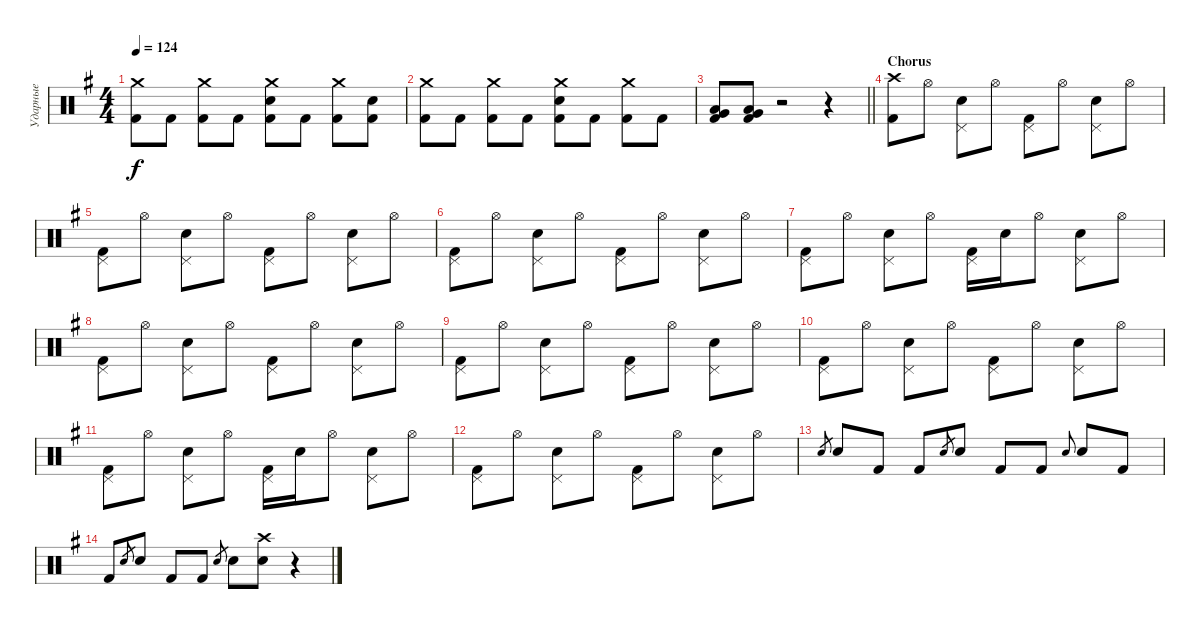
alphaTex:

\track ("Ударные" "Ударные") {instrument percussion}
\staff {score}
\articulation defaults
\ts (4 4)
\tempo 124
\clef neutral
\ks g
("Crash medium (hit)" "Kick (hit) 2").8{dy f} "Kick (hit) 2".8 ("Crash medium (hit)" "Kick (hit) 2").8 "Kick (hit) 2".8 ("Crash medium (hit)" "Electric Snare (hit)" "Kick (hit) 2").8 "Kick (hit) 2".8 ("Crash medium (hit)" "Kick (hit) 2").8 ("Electric Snare (hit)" "Kick (hit) 2").8 |
("Crash medium (hit)" "Kick (hit) 2").8 "Kick (hit) 2".8 ("Crash medium (hit)" "Kick (hit) 2").8 "Kick (hit) 2".8 ("Crash medium (hit)" "Electric Snare (hit)" "Kick (hit) 2").8 "Kick (hit) 2".8 ("Crash medium (hit)" "Kick (hit) 2").8 "Kick (hit) 2".8 |
\barLineRight lightlight
("Very Low Tom (hit)" "Low Tom (hit)" "Kick (hit) 2").8 ("Very Low Tom (hit)" "Low Tom (hit)" "Kick (hit) 2").8 r.2 r.4 |
\section ("" "Chorus")
("Crash high (hit)" "Kick (hit) 2").8 "Hi-Hat (open)".8 ("Pedal Hi-Hat (hit)" "Electric Snare (hit)").8 "Hi-Hat (open)".8 ("Pedal Hi-Hat (hit)" "Kick (hit) 2").8 "Hi-Hat (open)".8 ("Pedal Hi-Hat (hit)" "Electric Snare (hit)").8 "Hi-Hat (open)".8 |
("Pedal Hi-Hat (hit)" "Kick (hit) 2").8 "Hi-Hat (open)".8 ("Pedal Hi-Hat (hit)" "Electric Snare (hit)").8 "Hi-Hat (open)".8 ("Pedal Hi-Hat (hit)" "Kick (hit) 2").8 "Hi-Hat (open)".8 ("Pedal Hi-Hat (hit)" "Electric Snare (hit)").8 "Hi-Hat (open)".8 |
("Pedal Hi-Hat (hit)" "Kick (hit) 2").8 "Hi-Hat (open)".8 ("Pedal Hi-Hat (hit)" "Electric Snare (hit)").8 "Hi-Hat (open)".8 ("Pedal Hi-Hat (hit)" "Kick (hit) 2").8 "Hi-Hat (open)".8 ("Pedal Hi-Hat (hit)" "Electric Snare (hit)").8 "Hi-Hat (open)".8 |
("Pedal Hi-Hat (hit)" "Kick (hit) 2").8 "Hi-Hat (open)".8 ("Pedal Hi-Hat (hit)" "Electric Snare (hit)").8 "Hi-Hat (open)".8 ("Pedal Hi-Hat (hit)" "Kick (hit) 2").16 "Electric Snare (hit)".16 "Hi-Hat (open)".8 ("Pedal Hi-Hat (hit)" "Electric Snare (hit)").8 "Hi-Hat (open)".8 |
("Pedal Hi-Hat (hit)" "Kick (hit) 2").8 "Hi-Hat (open)".8 ("Pedal Hi-Hat (hit)" "Electric Snare (hit)").8 "Hi-Hat (open)".8 ("Pedal Hi-Hat (hit)" "Kick (hit) 2").8 "Hi-Hat (open)".8 ("Pedal Hi-Hat (hit)" "Electric Snare (hit)").8 "Hi-Hat (open)".8 |
("Pedal Hi-Hat (hit)" "Kick (hit) 2").8 "Hi-Hat (open)".8 ("Pedal Hi-Hat (hit)" "Electric Snare (hit)").8 "Hi-Hat (open)".8 ("Pedal Hi-Hat (hit)" "Kick (hit) 2").8 "Hi-Hat (open)".8 ("Pedal Hi-Hat (hit)" "Electric Snare (hit)").8 "Hi-Hat (open)".8 |
("Pedal Hi-Hat (hit)" "Kick (hit) 2").8 "Hi-Hat (open)".8 ("Pedal Hi-Hat (hit)" "Electric Snare (hit)").8 "Hi-Hat (open)".8 ("Pedal Hi-Hat (hit)" "Kick (hit) 2").8 "Hi-Hat (open)".8 ("Pedal Hi-Hat (hit)" "Electric Snare (hit)").8 "Hi-Hat (open)".8 |
("Pedal Hi-Hat (hit)" "Kick (hit) 2").8 "Hi-Hat (open)".8 ("Pedal Hi-Hat (hit)" "Electric Snare (hit)").8 "Hi-Hat (open)".8 ("Pedal Hi-Hat (hit)" "Kick (hit) 2").16 "Electric Snare (hit)".16 "Hi-Hat (open)".8 ("Pedal Hi-Hat (hit)" "Electric Snare (hit)").8 "Hi-Hat (open)".8 |
("Pedal Hi-Hat (hit)" "Kick (hit) 2").8 "Hi-Hat (open)".8 ("Pedal Hi-Hat (hit)" "Electric Snare (hit)").8 "Hi-Hat (open)".8 ("Pedal Hi-Hat (hit)" "Kick (hit) 2").8 "Hi-Hat (open)".8 ("Pedal Hi-Hat (hit)" "Electric Snare (hit)").8 "Hi-Hat (open)".8 |
"Electric Snare (hit)".8{gr} "Electric Snare (hit)".8 "Kick (hit) 2".8 "Kick (hit) 2".8 "Electric Snare (hit)".8{gr} "Electric Snare (hit)".8 "Kick (hit) 2".8 "Kick (hit) 2".8 "Electric Snare (hit)".8{gr onbeat} "Electric Snare (hit)".8 "Kick (hit) 2".8 |
"Kick (hit) 2".8 "Electric Snare (hit)".8{gr} "Electric Snare (hit)".8 "Kick (hit) 2".8 "Kick (hit) 2".8 "Electric Snare (hit)".8{gr} "Electric Snare (hit)".8 ("Crash high (hit)" "Electric Snare (hit)").8 r.4
